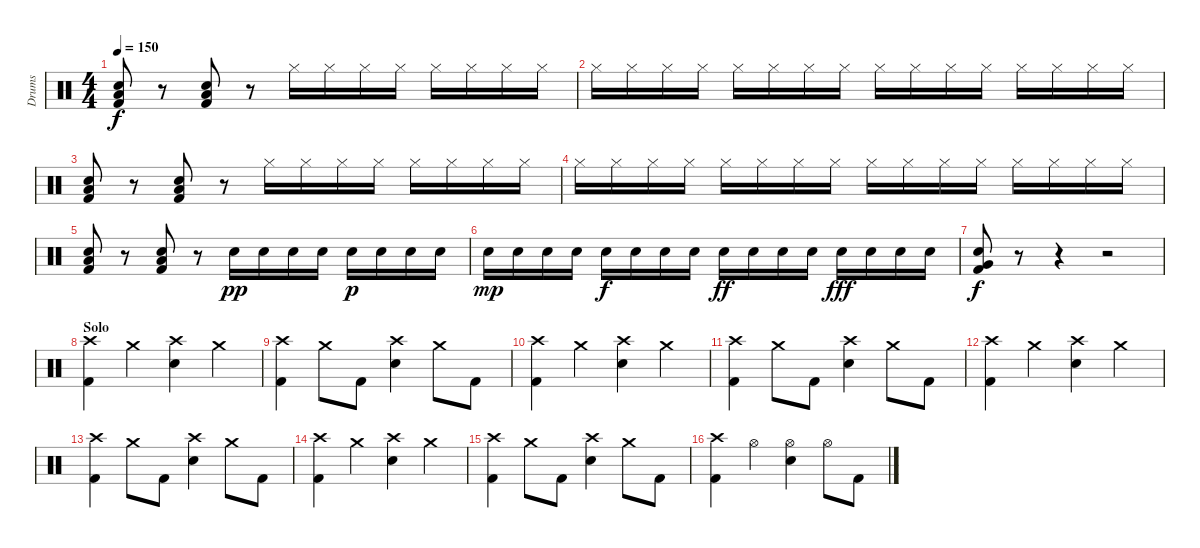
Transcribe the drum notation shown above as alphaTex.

\track ("Drums" "Drums") {instrument percussion}
\staff {score}
\articulation defaults
\ts (4 4)
\tempo 150
\clef neutral
\ks c
("Electric Snare (hit)" "Low Floor Tom (hit)" "Kick (hit) 2").8{dy f} r.8 ("Electric Snare (hit)" "Low Floor Tom (hit)" "Kick (hit) 2").8 r.8 "Hi-Hat (closed)".16 "Hi-Hat (closed)".16 "Hi-Hat (closed)".16 "Hi-Hat (closed)".16 "Hi-Hat (closed)".16 "Hi-Hat (closed)".16 "Hi-Hat (closed)".16 "Hi-Hat (closed)".16 |
"Hi-Hat (closed)".16 "Hi-Hat (closed)".16 "Hi-Hat (closed)".16 "Hi-Hat (closed)".16 "Hi-Hat (closed)".16 "Hi-Hat (closed)".16 "Hi-Hat (closed)".16 "Hi-Hat (closed)".16 "Hi-Hat (closed)".16 "Hi-Hat (closed)".16 "Hi-Hat (closed)".16 "Hi-Hat (closed)".16 "Hi-Hat (closed)".16 "Hi-Hat (closed)".16 "Hi-Hat (closed)".16 "Hi-Hat (closed)".16 |
("Electric Snare (hit)" "Low Floor Tom (hit)" "Kick (hit) 2").8 r.8 ("Electric Snare (hit)" "Low Floor Tom (hit)" "Kick (hit) 2").8 r.8 "Hi-Hat (closed)".16 "Hi-Hat (closed)".16 "Hi-Hat (closed)".16 "Hi-Hat (closed)".16 "Hi-Hat (closed)".16 "Hi-Hat (closed)".16 "Hi-Hat (closed)".16 "Hi-Hat (closed)".16 |
"Hi-Hat (closed)".16 "Hi-Hat (closed)".16 "Hi-Hat (closed)".16 "Hi-Hat (closed)".16 "Hi-Hat (closed)".16 "Hi-Hat (closed)".16 "Hi-Hat (closed)".16 "Hi-Hat (closed)".16 "Hi-Hat (closed)".16 "Hi-Hat (closed)".16 "Hi-Hat (closed)".16 "Hi-Hat (closed)".16 "Hi-Hat (closed)".16 "Hi-Hat (closed)".16 "Hi-Hat (closed)".16 "Hi-Hat (closed)".16 |
("Electric Snare (hit)" "Low Floor Tom (hit)" "Kick (hit) 2").8 r.8 ("Electric Snare (hit)" "Low Floor Tom (hit)" "Kick (hit) 2").8 r.8 "Electric Snare (hit)".16{dy pp} "Electric Snare (hit)".16 "Electric Snare (hit)".16 "Electric Snare (hit)".16 "Electric Snare (hit)".16{dy p} "Electric Snare (hit)".16 "Electric Snare (hit)".16 "Electric Snare (hit)".16 |
"Electric Snare (hit)".16{dy mp} "Electric Snare (hit)".16 "Electric Snare (hit)".16 "Electric Snare (hit)".16 "Electric Snare (hit)".16{dy f} "Electric Snare (hit)".16 "Electric Snare (hit)".16 "Electric Snare (hit)".16 "Electric Snare (hit)".16{dy ff} "Electric Snare (hit)".16 "Electric Snare (hit)".16 "Electric Snare (hit)".16 "Electric Snare (hit)".16{dy fff} "Electric Snare (hit)".16 "Electric Snare (hit)".16 "Electric Snare (hit)".16 |
("Electric Snare (hit)" "Very Low Tom (hit)" "Kick (hit) 2").8{dy f} r.8 r.4 r.2 |
\section ("" "Solo")
("Crash high (hit)" "Kick (hit) 2").4 "Crash medium (hit)".4 ("Crash high (hit)" "Electric Snare (hit)").4 "Crash medium (hit)".4 |
("Crash high (hit)" "Kick (hit) 2").4 "Crash medium (hit)".8 "Kick (hit) 2".8 ("Crash high (hit)" "Electric Snare (hit)").4 "Crash medium (hit)".8 "Kick (hit) 2".8 |
("Crash high (hit)" "Kick (hit) 2").4 "Crash medium (hit)".4 ("Crash high (hit)" "Electric Snare (hit)").4 "Crash medium (hit)".4 |
("Crash high (hit)" "Kick (hit) 2").4 "Crash medium (hit)".8 "Kick (hit) 2".8 ("Crash high (hit)" "Electric Snare (hit)").4 "Crash medium (hit)".8 "Kick (hit) 2".8 |
("Crash high (hit)" "Kick (hit) 2").4 "Crash medium (hit)".4 ("Crash high (hit)" "Electric Snare (hit)").4 "Crash medium (hit)".4 |
("Crash high (hit)" "Kick (hit) 2").4 "Crash medium (hit)".8 "Kick (hit) 2".8 ("Crash high (hit)" "Electric Snare (hit)").4 "Crash medium (hit)".8 "Kick (hit) 2".8 |
("Crash high (hit)" "Kick (hit) 2").4 "Crash medium (hit)".4 ("Crash high (hit)" "Electric Snare (hit)").4 "Crash medium (hit)".4 |
("Crash high (hit)" "Kick (hit) 2").4 "Crash medium (hit)".8 "Kick (hit) 2".8 ("Crash high (hit)" "Electric Snare (hit)").4 "Crash medium (hit)".8 "Kick (hit) 2".8 |
\section ("" "")
("Crash high (hit)" "Kick (hit) 2").4 "Hi-Hat (open)".4 ("Hi-Hat (open)" "Electric Snare (hit)").4 "Hi-Hat (open)".8 "Kick (hit) 2".8
